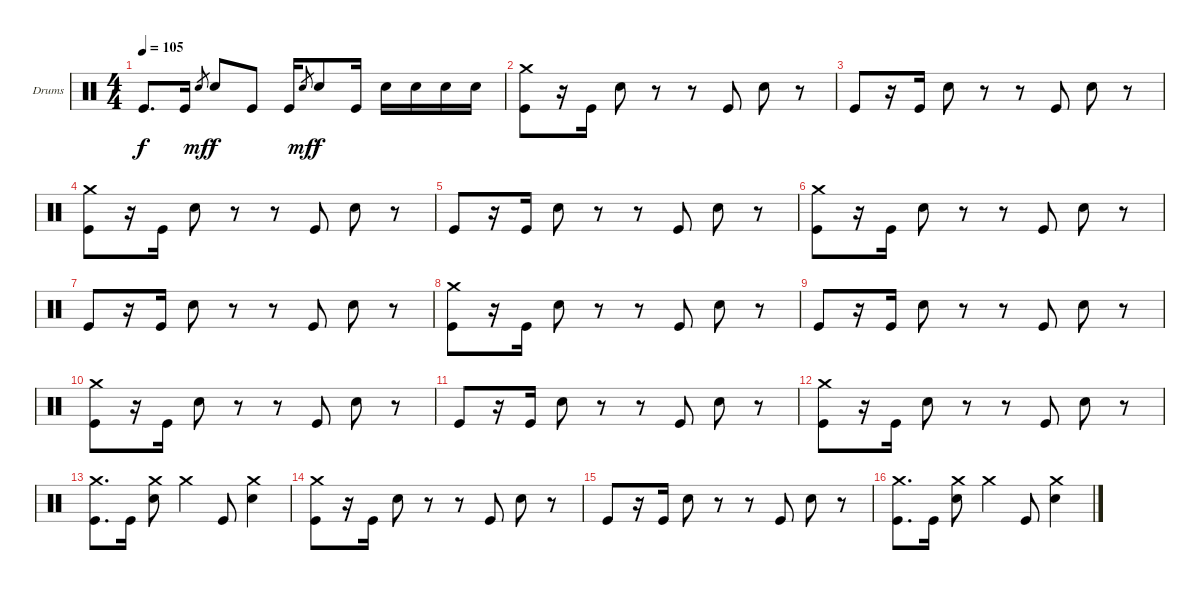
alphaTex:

\defaultSystemsLayout 4
\bracketExtendMode nobrackets
\firstSystemTrackNameOrientation horizontal
\otherSystemsTrackNameOrientation horizontal
\track ("Dave Krusen" "Drums") {instrument percussion}
\staff {score}
\articulation defaults
\ts (4 4)
\tempo 105
\clef neutral
\ks c "Kick (hit)".8{d dy f} "Kick (hit)".16 "Snare (hit) 2".8{gr dy mf} "Snare (hit) 2".8{dy f} "Kick (hit)".8 "Kick (hit)".16 "Snare (hit) 2".8{gr dy mf} "Snare (hit) 2".8{dy f} "Kick (hit)".16 "Snare (hit) 2".16 "Snare (hit) 2".16 "Snare (hit) 2".16 "Snare (hit) 2".16
|
("Crash medium (hit)" "Kick (hit)").8 r.16 "Kick (hit)".16 "Snare (hit) 2".8 r.8 r.8 "Kick (hit)".8 "Snare (hit) 2".8 r.8 |
"Kick (hit)".8 r.16 "Kick (hit)".16 "Snare (hit) 2".8 r.8 r.8 "Kick (hit)".8 "Snare (hit) 2".8 r.8 |
("Crash medium (hit)" "Kick (hit)").8 r.16 "Kick (hit)".16 "Snare (hit) 2".8 r.8 r.8 "Kick (hit)".8 "Snare (hit) 2".8 r.8 |
"Kick (hit)".8 r.16 "Kick (hit)".16 "Snare (hit) 2".8 r.8 r.8 "Kick (hit)".8 "Snare (hit) 2".8 r.8 |
("Crash medium (hit)" "Kick (hit)").8 r.16 "Kick (hit)".16 "Snare (hit) 2".8 r.8 r.8 "Kick (hit)".8 "Snare (hit) 2".8 r.8 |
"Kick (hit)".8 r.16 "Kick (hit)".16 "Snare (hit) 2".8 r.8 r.8 "Kick (hit)".8 "Snare (hit) 2".8 r.8 |
("Crash medium (hit)" "Kick (hit)").8 r.16 "Kick (hit)".16 "Snare (hit) 2".8 r.8 r.8 "Kick (hit)".8 "Snare (hit) 2".8 r.8 |
"Kick (hit)".8 r.16 "Kick (hit)".16 "Snare (hit) 2".8 r.8 r.8 "Kick (hit)".8 "Snare (hit) 2".8 r.8 |
("Crash medium (hit)" "Kick (hit)").8 r.16 "Kick (hit)".16 "Snare (hit) 2".8 r.8 r.8 "Kick (hit)".8 "Snare (hit) 2".8 r.8 |
"Kick (hit)".8 r.16 "Kick (hit)".16 "Snare (hit) 2".8 r.8 r.8 "Kick (hit)".8 "Snare (hit) 2".8 r.8 |
("Crash medium (hit)" "Kick (hit)").8 r.16 "Kick (hit)".16 "Snare (hit) 2".8 r.8 r.8 "Kick (hit)".8 "Snare (hit) 2".8 r.8 |
("Crash medium (hit)" "Kick (hit)").8{d} "Kick (hit)".16 ("Crash medium (hit)" "Snare (hit) 2").8 "Crash medium (hit)".4 "Kick (hit)".8 ("Crash medium (hit)" "Snare (hit) 2").4 |
("Crash medium (hit)" "Kick (hit)").8 r.16 "Kick (hit)".16 "Snare (hit) 2".8 r.8 r.8 "Kick (hit)".8 "Snare (hit) 2".8 r.8 |
"Kick (hit)".8 r.16 "Kick (hit)".16 "Snare (hit) 2".8 r.8 r.8 "Kick (hit)".8 "Snare (hit) 2".8 r.8 |
("Crash medium (hit)" "Kick (hit)").8{d} "Kick (hit)".16 ("Crash medium (hit)" "Snare (hit) 2").8 "Crash medium (hit)".4 "Kick (hit)".8 ("Crash medium (hit)" "Snare (hit) 2").4
